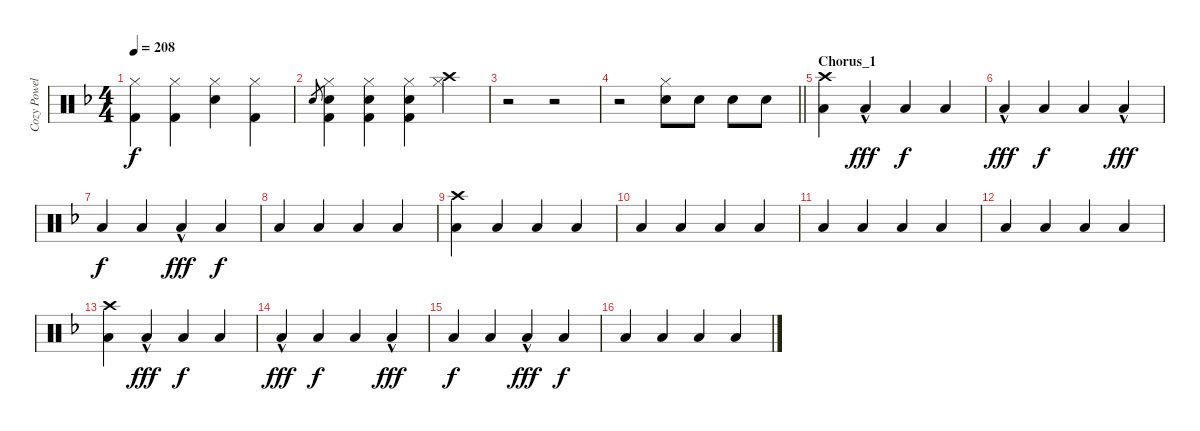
\track ("Cozy Powell" "Cozy Powel") {instrument percussion}
\staff {score}
\articulation defaults
\ts (4 4)
\tempo 208
\clef neutral
\ks f
("Hi-Hat (closed)" "Kick (hit) 2").4{dy f} ("Hi-Hat (closed)" "Kick (hit) 2").4 ("Hi-Hat (closed)" "Snare (hit) 2").4 ("Hi-Hat (closed)" "Kick (hit) 2").4 |
"Snare (hit) 2".8{gr} ("Hi-Hat (closed)" "Kick (hit) 2" "Snare (hit) 2").4 ("Hi-Hat (closed)" "Kick (hit) 2" "Snare (hit) 2").4 ("Hi-Hat (closed)" "Kick (hit) 2" "Snare (hit) 2").4 ("Hi-Hat (closed)" "Crash high (hit)").4 |
r.2 r.2 |
\barLineRight lightlight
r.2 ("Hi-Hat (closed)" "Snare (hit) 2").8 "Snare (hit) 2".8 "Snare (hit) 2".8 "Snare (hit) 2".8 |
\section ("" "Chorus_1")
("Low Tom (hit)" "Crash high (hit)").4 "Low Tom (hit)"{hac}.4{dy fff} "Low Tom (hit)".4{dy f} "Low Tom (hit)".4 |
"Low Tom (hit)"{hac}.4{dy fff} "Low Tom (hit)".4{dy f} "Low Tom (hit)".4 "Low Tom (hit)"{hac}.4{dy fff} |
"Low Tom (hit)".4{dy f} "Low Tom (hit)".4 "Low Tom (hit)"{hac}.4{dy fff} "Low Tom (hit)".4{dy f} |
"Low Tom (hit)".4 "Low Tom (hit)".4 "Low Tom (hit)".4 "Low Tom (hit)".4 |
("Crash high (hit)" "Low Tom (hit)").4 "Low Tom (hit)".4{volume 10} "Low Tom (hit)".4 "Low Tom (hit)".4 |
"Low Tom (hit)".4 "Low Tom (hit)".4 "Low Tom (hit)".4 "Low Tom (hit)".4 |
"Low Tom (hit)".4 "Low Tom (hit)".4 "Low Tom (hit)".4 "Low Tom (hit)".4 |
"Low Tom (hit)".4 "Low Tom (hit)".4 "Low Tom (hit)".4 "Low Tom (hit)".4 |
("Low Tom (hit)" "Crash high (hit)").4{volume 13} "Low Tom (hit)"{hac}.4{dy fff} "Low Tom (hit)".4{dy f} "Low Tom (hit)".4 |
"Low Tom (hit)"{hac}.4{dy fff} "Low Tom (hit)".4{dy f} "Low Tom (hit)".4 "Low Tom (hit)"{hac}.4{dy fff} |
"Low Tom (hit)".4{dy f} "Low Tom (hit)".4 "Low Tom (hit)"{hac}.4{dy fff} "Low Tom (hit)".4{dy f} |
"Low Tom (hit)".4 "Low Tom (hit)".4 "Low Tom (hit)".4 "Low Tom (hit)".4
